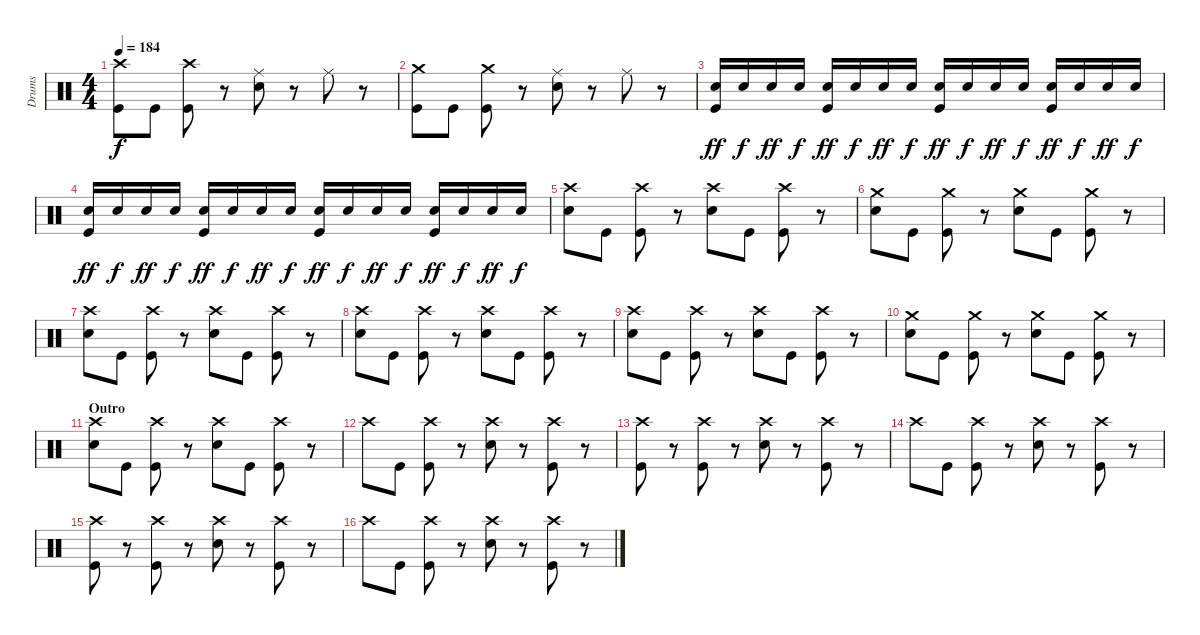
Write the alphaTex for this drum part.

\track ("Drums" "Drums") {instrument percussion}
\staff {score}
\articulation defaults
\ts (4 4)
\tempo 184
\clef neutral
\ks c
("Crash high (hit)" "Kick (hit)").8{dy f} "Kick (hit)".8 ("Crash high (hit)" "Kick (hit)").8 r.8 ("Ride (middle)" "Electric Snare (hit)").8 r.8 "Ride (middle)".8 r.8 |
("Crash medium (hit)" "Kick (hit)").8 "Kick (hit)".8 ("Crash medium (hit)" "Kick (hit)").8 r.8 ("Ride (middle)" "Electric Snare (hit)").8 r.8 "Ride (middle)".8 r.8 |
("Electric Snare (hit)" "Kick (hit)").16{dy ff} "Electric Snare (hit)".16{dy f} "Electric Snare (hit)".16{dy ff} "Electric Snare (hit)".16{dy f} ("Electric Snare (hit)" "Kick (hit)").16{dy ff} "Electric Snare (hit)".16{dy f} "Electric Snare (hit)".16{dy ff} "Electric Snare (hit)".16{dy f} ("Electric Snare (hit)" "Kick (hit)").16{dy ff} "Electric Snare (hit)".16{dy f} "Electric Snare (hit)".16{dy ff} "Electric Snare (hit)".16{dy f} ("Electric Snare (hit)" "Kick (hit)").16{dy ff} "Electric Snare (hit)".16{dy f} "Electric Snare (hit)".16{dy ff} "Electric Snare (hit)".16{dy f} |
("Electric Snare (hit)" "Kick (hit)").16{dy ff} "Electric Snare (hit)".16{dy f} "Electric Snare (hit)".16{dy ff} "Electric Snare (hit)".16{dy f} ("Electric Snare (hit)" "Kick (hit)").16{dy ff} "Electric Snare (hit)".16{dy f} "Electric Snare (hit)".16{dy ff} "Electric Snare (hit)".16{dy f} ("Electric Snare (hit)" "Kick (hit)").16{dy ff} "Electric Snare (hit)".16{dy f} "Electric Snare (hit)".16{dy ff} "Electric Snare (hit)".16{dy f} ("Electric Snare (hit)" "Kick (hit)").16{dy ff} "Electric Snare (hit)".16{dy f} "Electric Snare (hit)".16{dy ff} "Electric Snare (hit)".16{dy f} |
("Crash high (hit)" "Electric Snare (hit)").8 "Kick (hit)".8 ("Crash high (hit)" "Kick (hit)").8 r.8 ("Crash high (hit)" "Electric Snare (hit)").8 "Kick (hit)".8 ("Crash high (hit)" "Kick (hit)").8 r.8 |
("Crash medium (hit)" "Electric Snare (hit)").8 "Kick (hit)".8 ("Crash medium (hit)" "Kick (hit)").8 r.8 ("Crash medium (hit)" "Electric Snare (hit)").8 "Kick (hit)".8 ("Crash medium (hit)" "Kick (hit)").8 r.8 |
("Crash high (hit)" "Electric Snare (hit)").8 "Kick (hit)".8 ("Crash high (hit)" "Kick (hit)").8 r.8 ("Crash high (hit)" "Electric Snare (hit)").8 "Kick (hit)".8 ("Crash high (hit)" "Kick (hit)").8 r.8 |
("Crash high (hit)" "Electric Snare (hit)").8 "Kick (hit)".8 ("Crash high (hit)" "Kick (hit)").8 r.8 ("Crash high (hit)" "Electric Snare (hit)").8 "Kick (hit)".8 ("Crash high (hit)" "Kick (hit)").8 r.8 |
("Crash high (hit)" "Electric Snare (hit)").8 "Kick (hit)".8 ("Crash high (hit)" "Kick (hit)").8 r.8 ("Crash high (hit)" "Electric Snare (hit)").8 "Kick (hit)".8 ("Crash high (hit)" "Kick (hit)").8 r.8 |
("Crash medium (hit)" "Electric Snare (hit)").8 "Kick (hit)".8 ("Crash medium (hit)" "Kick (hit)").8 r.8 ("Crash medium (hit)" "Electric Snare (hit)").8 "Kick (hit)".8 ("Crash medium (hit)" "Kick (hit)").8 r.8 |
\section ("" "Outro")
("Crash high (hit)" "Electric Snare (hit)").8 "Kick (hit)".8 ("Crash high (hit)" "Kick (hit)").8 r.8 ("Crash high (hit)" "Electric Snare (hit)").8 "Kick (hit)".8 ("Crash high (hit)" "Kick (hit)").8 r.8 |
"Crash high (hit)".8 "Kick (hit)".8 ("Crash high (hit)" "Kick (hit)").8 r.8 ("Crash high (hit)" "Electric Snare (hit)").8 r.8 ("Crash high (hit)" "Kick (hit)").8 r.8 |
("Crash high (hit)" "Kick (hit)").8 r.8 ("Crash high (hit)" "Kick (hit)").8 r.8 ("Crash high (hit)" "Electric Snare (hit)").8 r.8 ("Crash high (hit)" "Kick (hit)").8 r.8 |
"Crash high (hit)".8 "Kick (hit)".8 ("Crash high (hit)" "Kick (hit)").8 r.8 ("Crash high (hit)" "Electric Snare (hit)").8 r.8 ("Crash high (hit)" "Kick (hit)").8 r.8 |
("Crash high (hit)" "Kick (hit)").8 r.8 ("Crash high (hit)" "Kick (hit)").8 r.8 ("Crash high (hit)" "Electric Snare (hit)").8 r.8 ("Crash high (hit)" "Kick (hit)").8 r.8 |
"Crash high (hit)".8 "Kick (hit)".8 ("Crash high (hit)" "Kick (hit)").8 r.8 ("Crash high (hit)" "Electric Snare (hit)").8 r.8 ("Crash high (hit)" "Kick (hit)").8 r.8
